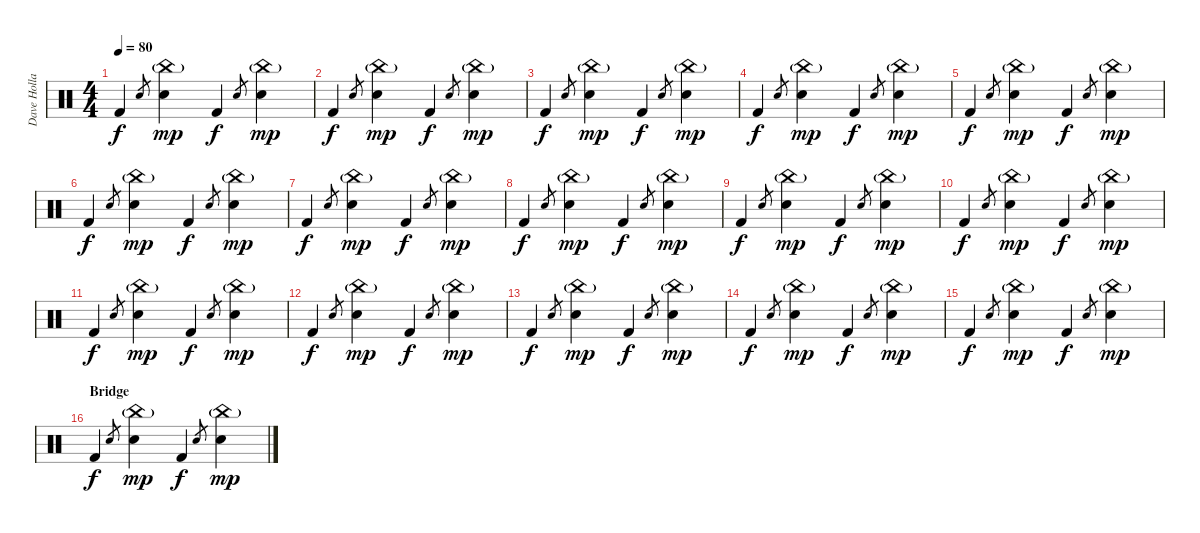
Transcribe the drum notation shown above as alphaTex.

\track ("Dave Holland" "Dave Holla") {instrument percussion}
\staff {score}
\articulation defaults
\ts (4 4)
\tempo 80
\clef neutral
\ks c "Kick (hit) 2".4{dy f} "Snare (hit) 2".8{gr}
("Snare (hit) 2" "China (hit)"{g}).4{dy mp} "Kick (hit) 2".4{dy f} "Snare (hit) 2".8{gr} ("Snare (hit) 2" "China (hit)"{g}).4{dy mp} |
"Kick (hit) 2".4{dy f} "Snare (hit) 2".8{gr} ("Snare (hit) 2" "China (hit)"{g}).4{dy mp} "Kick (hit) 2".4{dy f} "Snare (hit) 2".8{gr} ("Snare (hit) 2" "China (hit)"{g}).4{dy mp} |
"Kick (hit) 2".4{dy f} "Snare (hit) 2".8{gr} ("Snare (hit) 2" "China (hit)"{g}).4{dy mp} "Kick (hit) 2".4{dy f} "Snare (hit) 2".8{gr} ("Snare (hit) 2" "China (hit)"{g}).4{dy mp} |
"Kick (hit) 2".4{dy f} "Snare (hit) 2".8{gr} ("Snare (hit) 2" "China (hit)"{g}).4{dy mp} "Kick (hit) 2".4{dy f} "Snare (hit) 2".8{gr} ("Snare (hit) 2" "China (hit)"{g}).4{dy mp} |
"Kick (hit) 2".4{dy f} "Snare (hit) 2".8{gr} ("Snare (hit) 2" "China (hit)"{g}).4{dy mp} "Kick (hit) 2".4{dy f} "Snare (hit) 2".8{gr} ("Snare (hit) 2" "China (hit)"{g}).4{dy mp} |
"Kick (hit) 2".4{dy f} "Snare (hit) 2".8{gr} ("Snare (hit) 2" "China (hit)"{g}).4{dy mp} "Kick (hit) 2".4{dy f} "Snare (hit) 2".8{gr} ("Snare (hit) 2" "China (hit)"{g}).4{dy mp} |
"Kick (hit) 2".4{dy f} "Snare (hit) 2".8{gr} ("Snare (hit) 2" "China (hit)"{g}).4{dy mp} "Kick (hit) 2".4{dy f} "Snare (hit) 2".8{gr} ("Snare (hit) 2" "China (hit)"{g}).4{dy mp} |
"Kick (hit) 2".4{dy f} "Snare (hit) 2".8{gr} ("Snare (hit) 2" "China (hit)"{g}).4{dy mp} "Kick (hit) 2".4{dy f} "Snare (hit) 2".8{gr} ("Snare (hit) 2" "China (hit)"{g}).4{dy mp} |
"Kick (hit) 2".4{dy f} "Snare (hit) 2".8{gr} ("Snare (hit) 2" "China (hit)"{g}).4{dy mp} "Kick (hit) 2".4{dy f} "Snare (hit) 2".8{gr} ("Snare (hit) 2" "China (hit)"{g}).4{dy mp} |
"Kick (hit) 2".4{dy f} "Snare (hit) 2".8{gr} ("Snare (hit) 2" "China (hit)"{g}).4{dy mp} "Kick (hit) 2".4{dy f} "Snare (hit) 2".8{gr} ("Snare (hit) 2" "China (hit)"{g}).4{dy mp} |
"Kick (hit) 2".4{dy f} "Snare (hit) 2".8{gr} ("Snare (hit) 2" "China (hit)"{g}).4{dy mp} "Kick (hit) 2".4{dy f} "Snare (hit) 2".8{gr} ("Snare (hit) 2" "China (hit)"{g}).4{dy mp} |
"Kick (hit) 2".4{dy f} "Snare (hit) 2".8{gr} ("Snare (hit) 2" "China (hit)"{g}).4{dy mp} "Kick (hit) 2".4{dy f} "Snare (hit) 2".8{gr} ("Snare (hit) 2" "China (hit)"{g}).4{dy mp} |
"Kick (hit) 2".4{dy f} "Snare (hit) 2".8{gr} ("Snare (hit) 2" "China (hit)"{g}).4{dy mp} "Kick (hit) 2".4{dy f} "Snare (hit) 2".8{gr} ("Snare (hit) 2" "China (hit)"{g}).4{dy mp} |
"Kick (hit) 2".4{dy f} "Snare (hit) 2".8{gr} ("Snare (hit) 2" "China (hit)"{g}).4{dy mp} "Kick (hit) 2".4{dy f} "Snare (hit) 2".8{gr} ("Snare (hit) 2" "China (hit)"{g}).4{dy mp} |
"Kick (hit) 2".4{dy f} "Snare (hit) 2".8{gr} ("Snare (hit) 2" "China (hit)"{g}).4{dy mp} "Kick (hit) 2".4{dy f} "Snare (hit) 2".8{gr} ("Snare (hit) 2" "China (hit)"{g}).4{dy mp} |
\section ("" "Bridge")
"Kick (hit) 2".4{dy f} "Snare (hit) 2".8{gr} ("Snare (hit) 2" "China (hit)"{g}).4{dy mp} "Kick (hit) 2".4{dy f} "Snare (hit) 2".8{gr} ("Snare (hit) 2" "China (hit)"{g}).4{dy mp}
